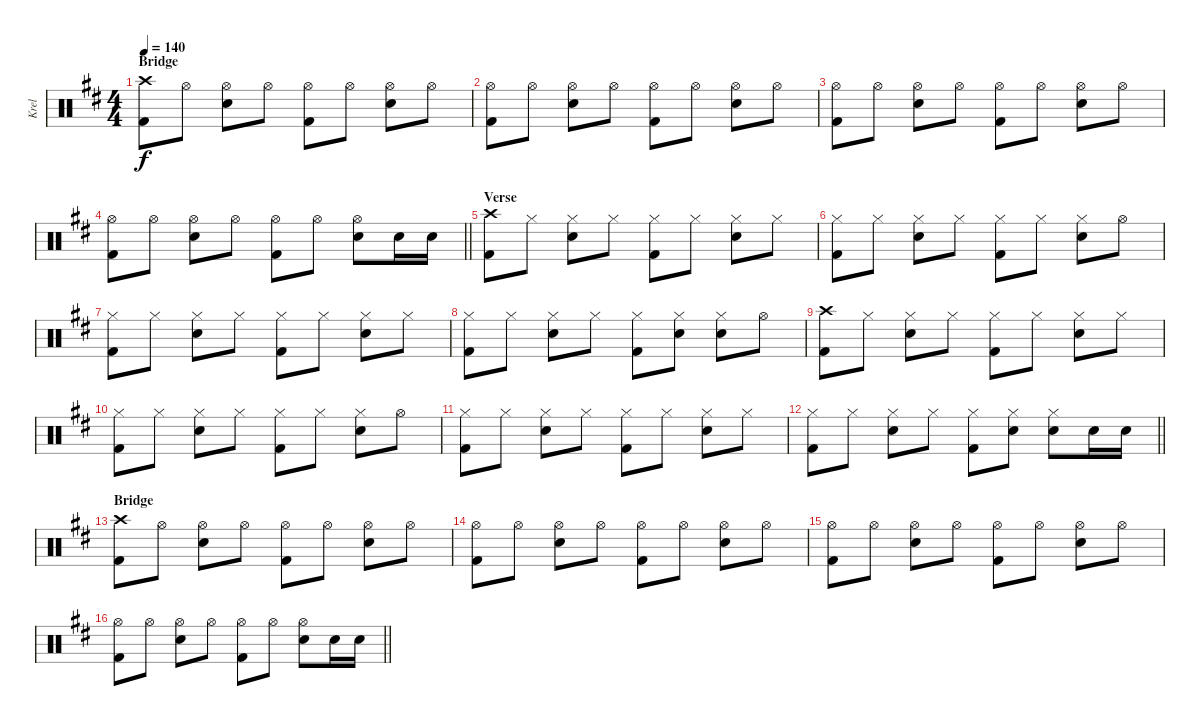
\track ("Krel" "Krel") {instrument percussion}
\staff {score}
\articulation defaults
\ts (4 4)
\section ("" "Bridge")
\tempo 140
\clef neutral
\ks d
("Crash high (hit)" "Kick (hit) 2").8{dy f} "Hi-Hat (open)".8 ("Hi-Hat (open)" "Snare (hit) 2").8 "Hi-Hat (open)".8 ("Hi-Hat (open)" "Kick (hit) 2").8 "Hi-Hat (open)".8 ("Hi-Hat (open)" "Snare (hit) 2").8 "Hi-Hat (open)".8 |
("Hi-Hat (open)" "Kick (hit) 2").8 "Hi-Hat (open)".8 ("Hi-Hat (open)" "Snare (hit) 2").8 "Hi-Hat (open)".8 ("Hi-Hat (open)" "Kick (hit) 2").8 "Hi-Hat (open)".8 ("Hi-Hat (open)" "Snare (hit) 2").8 "Hi-Hat (open)".8 |
("Hi-Hat (open)" "Kick (hit) 2").8 "Hi-Hat (open)".8 ("Hi-Hat (open)" "Snare (hit) 2").8 "Hi-Hat (open)".8 ("Hi-Hat (open)" "Kick (hit) 2").8 "Hi-Hat (open)".8 ("Hi-Hat (open)" "Snare (hit) 2").8 "Hi-Hat (open)".8 |
\barLineRight lightlight
("Hi-Hat (open)" "Kick (hit) 2").8 "Hi-Hat (open)".8 ("Hi-Hat (open)" "Snare (hit) 2").8 "Hi-Hat (open)".8 ("Hi-Hat (open)" "Kick (hit) 2").8 "Hi-Hat (open)".8 ("Hi-Hat (open)" "Snare (hit) 2").8 "Snare (hit) 2".16 "Snare (hit) 2".16 |
\section ("" "Verse")
("Crash high (hit)" "Kick (hit) 2").8 "Hi-Hat (closed)".8 ("Hi-Hat (closed)" "Snare (hit) 2").8 "Hi-Hat (closed)".8 ("Hi-Hat (closed)" "Kick (hit) 2").8 "Hi-Hat (closed)".8 ("Hi-Hat (closed)" "Snare (hit) 2").8 "Hi-Hat (closed)".8 |
("Hi-Hat (closed)" "Kick (hit) 2").8 "Hi-Hat (closed)".8 ("Hi-Hat (closed)" "Snare (hit) 2").8 "Hi-Hat (closed)".8 ("Hi-Hat (closed)" "Kick (hit) 2").8 "Hi-Hat (closed)".8 ("Hi-Hat (closed)" "Snare (hit) 2").8 "Hi-Hat (open)".8 |
("Hi-Hat (closed)" "Kick (hit) 2").8 "Hi-Hat (closed)".8 ("Hi-Hat (closed)" "Snare (hit) 2").8 "Hi-Hat (closed)".8 ("Hi-Hat (closed)" "Kick (hit) 2").8 "Hi-Hat (closed)".8 ("Hi-Hat (closed)" "Snare (hit) 2").8 "Hi-Hat (closed)".8 |
("Hi-Hat (closed)" "Kick (hit) 2").8 "Hi-Hat (closed)".8 ("Hi-Hat (closed)" "Snare (hit) 2").8 "Hi-Hat (closed)".8 ("Hi-Hat (closed)" "Kick (hit) 2").8 ("Hi-Hat (closed)" "Snare (hit) 2").8 ("Hi-Hat (closed)" "Snare (hit) 2").8 "Hi-Hat (open)".8 |
("Crash high (hit)" "Kick (hit) 2").8 "Hi-Hat (closed)".8 ("Hi-Hat (closed)" "Snare (hit) 2").8 "Hi-Hat (closed)".8 ("Hi-Hat (closed)" "Kick (hit) 2").8 "Hi-Hat (closed)".8 ("Hi-Hat (closed)" "Snare (hit) 2").8 "Hi-Hat (closed)".8 |
("Hi-Hat (closed)" "Kick (hit) 2").8 "Hi-Hat (closed)".8 ("Hi-Hat (closed)" "Snare (hit) 2").8 "Hi-Hat (closed)".8 ("Hi-Hat (closed)" "Kick (hit) 2").8 "Hi-Hat (closed)".8 ("Hi-Hat (closed)" "Snare (hit) 2").8 "Hi-Hat (open)".8 |
("Hi-Hat (closed)" "Kick (hit) 2").8 "Hi-Hat (closed)".8 ("Hi-Hat (closed)" "Snare (hit) 2").8 "Hi-Hat (closed)".8 ("Hi-Hat (closed)" "Kick (hit) 2").8 "Hi-Hat (closed)".8 ("Hi-Hat (closed)" "Snare (hit) 2").8 "Hi-Hat (closed)".8 |
\barLineRight lightlight
("Hi-Hat (closed)" "Kick (hit) 2").8 "Hi-Hat (closed)".8 ("Hi-Hat (closed)" "Snare (hit) 2").8 "Hi-Hat (closed)".8 ("Hi-Hat (closed)" "Kick (hit) 2").8 ("Hi-Hat (closed)" "Snare (hit) 2").8 ("Hi-Hat (closed)" "Snare (hit) 2").8 "Snare (hit) 2".16 "Snare (hit) 2".16 |
\section ("" "Bridge")
("Crash high (hit)" "Kick (hit) 2").8 "Hi-Hat (open)".8 ("Hi-Hat (open)" "Snare (hit) 2").8 "Hi-Hat (open)".8 ("Hi-Hat (open)" "Kick (hit) 2").8 "Hi-Hat (open)".8 ("Hi-Hat (open)" "Snare (hit) 2").8 "Hi-Hat (open)".8 |
("Hi-Hat (open)" "Kick (hit) 2").8 "Hi-Hat (open)".8 ("Hi-Hat (open)" "Snare (hit) 2").8 "Hi-Hat (open)".8 ("Hi-Hat (open)" "Kick (hit) 2").8 "Hi-Hat (open)".8 ("Hi-Hat (open)" "Snare (hit) 2").8 "Hi-Hat (open)".8 |
("Hi-Hat (open)" "Kick (hit) 2").8 "Hi-Hat (open)".8 ("Hi-Hat (open)" "Snare (hit) 2").8 "Hi-Hat (open)".8 ("Hi-Hat (open)" "Kick (hit) 2").8 "Hi-Hat (open)".8 ("Hi-Hat (open)" "Snare (hit) 2").8 "Hi-Hat (open)".8 |
\barLineRight lightlight
("Hi-Hat (open)" "Kick (hit) 2").8 "Hi-Hat (open)".8 ("Hi-Hat (open)" "Snare (hit) 2").8 "Hi-Hat (open)".8 ("Hi-Hat (open)" "Kick (hit) 2").8 "Hi-Hat (open)".8 ("Hi-Hat (open)" "Snare (hit) 2").8 "Snare (hit) 2".16 "Snare (hit) 2".16
